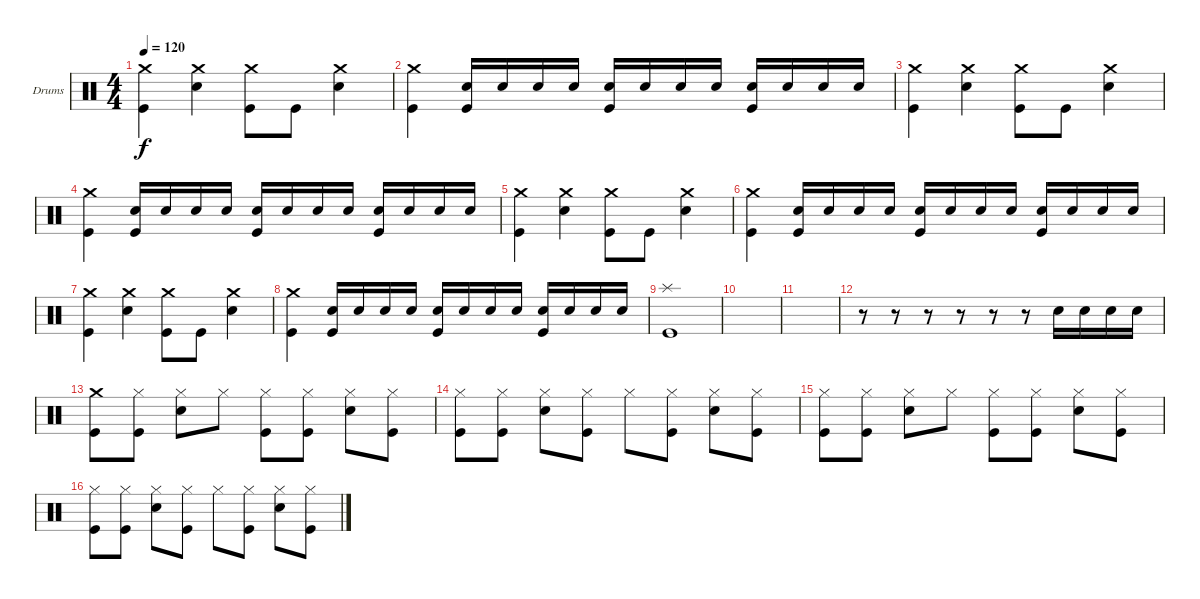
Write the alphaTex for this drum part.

\defaultSystemsLayout 4
\bracketExtendMode groupsimilarinstruments
\firstSystemTrackNameOrientation horizontal
\otherSystemsTrackNameOrientation horizontal
\track ("Drumkit" "Drums") {instrument percussion}
\staff {score}
\articulation defaults
\ts (4 4)
\tempo 120
\clef neutral
\ks c
("Crash medium (hit)" "Kick (hit)").4{dy f} ("Crash medium (hit)" "Snare (hit) 2").4 ("Crash medium (hit)" "Kick (hit)").8 "Kick (hit)".8 ("Crash medium (hit)" "Snare (hit) 2").4 |
("Crash medium (hit)" "Kick (hit)").4 ("Kick (hit)" "Snare (hit) 2").16 "Snare (hit) 2".16 "Snare (hit) 2".16 "Snare (hit) 2".16 ("Kick (hit)" "Snare (hit) 2").16 "Snare (hit) 2".16 "Snare (hit) 2".16 "Snare (hit) 2".16 ("Kick (hit)" "Snare (hit) 2").16 "Snare (hit) 2".16 "Snare (hit) 2".16 "Snare (hit) 2".16 |
("Crash medium (hit)" "Kick (hit)").4 ("Crash medium (hit)" "Snare (hit) 2").4 ("Crash medium (hit)" "Kick (hit)").8 "Kick (hit)".8 ("Crash medium (hit)" "Snare (hit) 2").4 |
("Crash medium (hit)" "Kick (hit)").4 ("Kick (hit)" "Snare (hit) 2").16 "Snare (hit) 2".16 "Snare (hit) 2".16 "Snare (hit) 2".16 ("Kick (hit)" "Snare (hit) 2").16 "Snare (hit) 2".16 "Snare (hit) 2".16 "Snare (hit) 2".16 ("Kick (hit)" "Snare (hit) 2").16 "Snare (hit) 2".16 "Snare (hit) 2".16 "Snare (hit) 2".16 |
("Crash medium (hit)" "Kick (hit)").4 ("Crash medium (hit)" "Snare (hit) 2").4 ("Crash medium (hit)" "Kick (hit)").8 "Kick (hit)".8 ("Crash medium (hit)" "Snare (hit) 2").4 |
("Crash medium (hit)" "Kick (hit)").4 ("Kick (hit)" "Snare (hit) 2").16 "Snare (hit) 2".16 "Snare (hit) 2".16 "Snare (hit) 2".16 ("Kick (hit)" "Snare (hit) 2").16 "Snare (hit) 2".16 "Snare (hit) 2".16 "Snare (hit) 2".16 ("Kick (hit)" "Snare (hit) 2").16 "Snare (hit) 2".16 "Snare (hit) 2".16 "Snare (hit) 2".16 |
("Crash medium (hit)" "Kick (hit)").4 ("Crash medium (hit)" "Snare (hit) 2").4 ("Crash medium (hit)" "Kick (hit)").8 "Kick (hit)".8 ("Crash medium (hit)" "Snare (hit) 2").4 |
("Crash medium (hit)" "Kick (hit)").4 ("Kick (hit)" "Snare (hit) 2").16 "Snare (hit) 2".16 "Snare (hit) 2".16 "Snare (hit) 2".16 ("Kick (hit)" "Snare (hit) 2").16 "Snare (hit) 2".16 "Snare (hit) 2".16 "Snare (hit) 2".16 ("Kick (hit)" "Snare (hit) 2").16 "Snare (hit) 2".16 "Snare (hit) 2".16 "Snare (hit) 2".16 |
("Kick (hit)" "Splash (hit)").1 |
|
|
r.8 r.8 r.8 r.8 r.8 r.8 "Snare (hit) 2".16 "Snare (hit) 2".16 "Snare (hit) 2".16 "Snare (hit) 2".16 |
("Crash medium (hit)" "Kick (hit)").8 ("Hi-Hat (closed)" "Kick (hit)").8 ("Hi-Hat (closed)" "Snare (hit) 2").8 "Hi-Hat (closed)".8 ("Hi-Hat (closed)" "Kick (hit)").8 ("Hi-Hat (closed)" "Kick (hit)").8 ("Hi-Hat (closed)" "Snare (hit) 2").8 ("Hi-Hat (closed)" "Kick (hit)").8 |
("Hi-Hat (closed)" "Kick (hit)").8 ("Hi-Hat (closed)" "Kick (hit)").8 ("Hi-Hat (closed)" "Snare (hit) 2").8 ("Hi-Hat (closed)" "Kick (hit)").8 "Hi-Hat (closed)".8 ("Hi-Hat (closed)" "Kick (hit)").8 ("Hi-Hat (closed)" "Snare (hit) 2").8 ("Hi-Hat (closed)" "Kick (hit)").8 |
("Hi-Hat (closed)" "Kick (hit)").8 ("Hi-Hat (closed)" "Kick (hit)").8 ("Hi-Hat (closed)" "Snare (hit) 2").8 "Hi-Hat (closed)".8 ("Hi-Hat (closed)" "Kick (hit)").8 ("Hi-Hat (closed)" "Kick (hit)").8 ("Hi-Hat (closed)" "Snare (hit) 2").8 ("Hi-Hat (closed)" "Kick (hit)").8 |
("Hi-Hat (closed)" "Kick (hit)").8 ("Hi-Hat (closed)" "Kick (hit)").8 ("Hi-Hat (closed)" "Snare (hit) 2").8 ("Hi-Hat (closed)" "Kick (hit)").8 "Hi-Hat (closed)".8 ("Hi-Hat (closed)" "Kick (hit)").8 ("Hi-Hat (closed)" "Snare (hit) 2").8 ("Hi-Hat (closed)" "Kick (hit)").8
